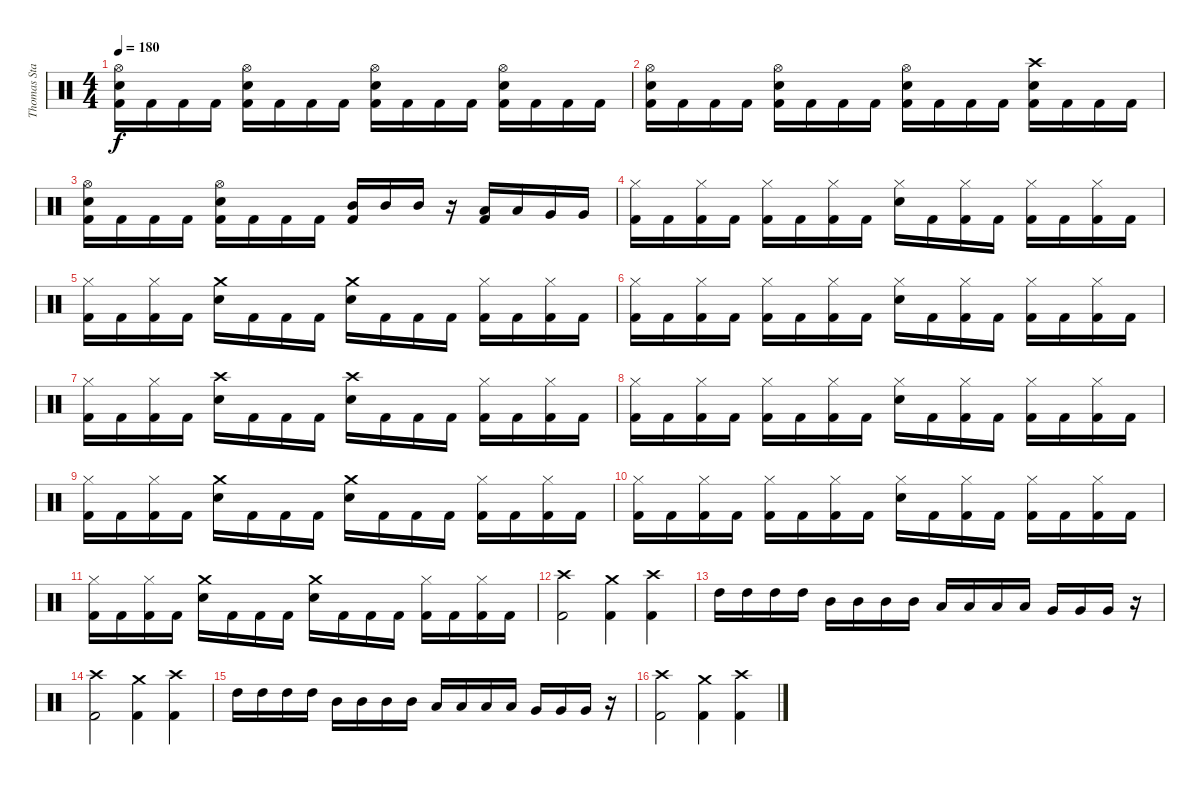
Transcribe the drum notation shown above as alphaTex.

\track ("Thomas Stauch" "Thomas Sta") {instrument percussion}
\staff {score}
\articulation defaults
\ts (4 4)
\tempo 180
\clef neutral
\ks c
("Hi-Hat (open)" "Electric Snare (hit)" "Kick (hit) 2").16{dy f} "Kick (hit) 2".16 "Kick (hit) 2".16 "Kick (hit) 2".16 ("Hi-Hat (open)" "Electric Snare (hit)" "Kick (hit) 2").16 "Kick (hit) 2".16 "Kick (hit) 2".16 "Kick (hit) 2".16 ("Hi-Hat (open)" "Electric Snare (hit)" "Kick (hit) 2").16 "Kick (hit) 2".16 "Kick (hit) 2".16 "Kick (hit) 2".16 ("Hi-Hat (open)" "Electric Snare (hit)" "Kick (hit) 2").16 "Kick (hit) 2".16 "Kick (hit) 2".16 "Kick (hit) 2".16 |
("Hi-Hat (open)" "Electric Snare (hit)" "Kick (hit) 2").16 "Kick (hit) 2".16 "Kick (hit) 2".16 "Kick (hit) 2".16 ("Hi-Hat (open)" "Electric Snare (hit)" "Kick (hit) 2").16 "Kick (hit) 2".16 "Kick (hit) 2".16 "Kick (hit) 2".16 ("Hi-Hat (open)" "Electric Snare (hit)" "Kick (hit) 2").16 "Kick (hit) 2".16 "Kick (hit) 2".16 "Kick (hit) 2".16 ("Crash high (hit)" "Electric Snare (hit)" "Kick (hit) 2").16 "Kick (hit) 2".16 "Kick (hit) 2".16 "Kick (hit) 2".16 |
("Hi-Hat (open)" "Electric Snare (hit)" "Kick (hit) 2").16 "Kick (hit) 2".16 "Kick (hit) 2".16 "Kick (hit) 2".16 ("Hi-Hat (open)" "Electric Snare (hit)" "Kick (hit) 2").16 "Kick (hit) 2".16 "Kick (hit) 2".16 "Kick (hit) 2".16 ("Mid Tom (hit)" "Kick (hit) 2").16 "Mid Tom (hit)".16 "Mid Tom (hit)".16 r.16 ("Low Tom (hit)" "Kick (hit) 2").16 "Low Tom (hit)".16 "Very Low Tom (hit)".16 "Very Low Tom (hit)".16 |
("Hi-Hat (closed)" "Kick (hit) 2").16 "Kick (hit) 2".16 ("Hi-Hat (closed)" "Kick (hit) 2").16 "Kick (hit) 2".16 ("Hi-Hat (closed)" "Kick (hit) 2").16 "Kick (hit) 2".16 ("Hi-Hat (closed)" "Kick (hit) 2").16 "Kick (hit) 2".16 ("Hi-Hat (closed)" "Electric Snare (hit)").16 "Kick (hit) 2".16 ("Hi-Hat (closed)" "Kick (hit) 2").16 "Kick (hit) 2".16 ("Hi-Hat (closed)" "Kick (hit) 2").16 "Kick (hit) 2".16 ("Hi-Hat (closed)" "Kick (hit) 2").16 "Kick (hit) 2".16 |
("Hi-Hat (closed)" "Kick (hit) 2").16 "Kick (hit) 2".16 ("Hi-Hat (closed)" "Kick (hit) 2").16 "Kick (hit) 2".16 ("Crash medium (hit)" "Electric Snare (hit)").16 "Kick (hit) 2".16 "Kick (hit) 2".16 "Kick (hit) 2".16 ("Crash medium (hit)" "Electric Snare (hit)").16 "Kick (hit) 2".16 "Kick (hit) 2".16 "Kick (hit) 2".16 ("Hi-Hat (closed)" "Kick (hit) 2").16 "Kick (hit) 2".16 ("Hi-Hat (closed)" "Kick (hit) 2").16 "Kick (hit) 2".16 |
("Hi-Hat (closed)" "Kick (hit) 2").16 "Kick (hit) 2".16 ("Hi-Hat (closed)" "Kick (hit) 2").16 "Kick (hit) 2".16 ("Hi-Hat (closed)" "Kick (hit) 2").16 "Kick (hit) 2".16 ("Hi-Hat (closed)" "Kick (hit) 2").16 "Kick (hit) 2".16 ("Hi-Hat (closed)" "Electric Snare (hit)").16 "Kick (hit) 2".16 ("Hi-Hat (closed)" "Kick (hit) 2").16 "Kick (hit) 2".16 ("Hi-Hat (closed)" "Kick (hit) 2").16 "Kick (hit) 2".16 ("Hi-Hat (closed)" "Kick (hit) 2").16 "Kick (hit) 2".16 |
("Hi-Hat (closed)" "Kick (hit) 2").16 "Kick (hit) 2".16 ("Hi-Hat (closed)" "Kick (hit) 2").16 "Kick (hit) 2".16 ("Crash high (hit)" "Electric Snare (hit)").16 "Kick (hit) 2".16 "Kick (hit) 2".16 "Kick (hit) 2".16 ("Crash high (hit)" "Electric Snare (hit)").16 "Kick (hit) 2".16 "Kick (hit) 2".16 "Kick (hit) 2".16 ("Hi-Hat (closed)" "Kick (hit) 2").16 "Kick (hit) 2".16 ("Hi-Hat (closed)" "Kick (hit) 2").16 "Kick (hit) 2".16 |
("Hi-Hat (closed)" "Kick (hit) 2").16 "Kick (hit) 2".16 ("Hi-Hat (closed)" "Kick (hit) 2").16 "Kick (hit) 2".16 ("Hi-Hat (closed)" "Kick (hit) 2").16 "Kick (hit) 2".16 ("Hi-Hat (closed)" "Kick (hit) 2").16 "Kick (hit) 2".16 ("Hi-Hat (closed)" "Electric Snare (hit)").16 "Kick (hit) 2".16 ("Hi-Hat (closed)" "Kick (hit) 2").16 "Kick (hit) 2".16 ("Hi-Hat (closed)" "Kick (hit) 2").16 "Kick (hit) 2".16 ("Hi-Hat (closed)" "Kick (hit) 2").16 "Kick (hit) 2".16 |
("Hi-Hat (closed)" "Kick (hit) 2").16 "Kick (hit) 2".16 ("Hi-Hat (closed)" "Kick (hit) 2").16 "Kick (hit) 2".16 ("Crash medium (hit)" "Electric Snare (hit)").16 "Kick (hit) 2".16 "Kick (hit) 2".16 "Kick (hit) 2".16 ("Crash medium (hit)" "Electric Snare (hit)").16 "Kick (hit) 2".16 "Kick (hit) 2".16 "Kick (hit) 2".16 ("Hi-Hat (closed)" "Kick (hit) 2").16 "Kick (hit) 2".16 ("Hi-Hat (closed)" "Kick (hit) 2").16 "Kick (hit) 2".16 |
("Hi-Hat (closed)" "Kick (hit) 2").16 "Kick (hit) 2".16 ("Hi-Hat (closed)" "Kick (hit) 2").16 "Kick (hit) 2".16 ("Hi-Hat (closed)" "Kick (hit) 2").16 "Kick (hit) 2".16 ("Hi-Hat (closed)" "Kick (hit) 2").16 "Kick (hit) 2".16 ("Hi-Hat (closed)" "Electric Snare (hit)").16 "Kick (hit) 2".16 ("Hi-Hat (closed)" "Kick (hit) 2").16 "Kick (hit) 2".16 ("Hi-Hat (closed)" "Kick (hit) 2").16 "Kick (hit) 2".16 ("Hi-Hat (closed)" "Kick (hit) 2").16 "Kick (hit) 2".16 |
("Hi-Hat (closed)" "Kick (hit) 2").16 "Kick (hit) 2".16 ("Hi-Hat (closed)" "Kick (hit) 2").16 "Kick (hit) 2".16 ("Crash medium (hit)" "Electric Snare (hit)").16 "Kick (hit) 2".16 "Kick (hit) 2".16 "Kick (hit) 2".16 ("Crash medium (hit)" "Electric Snare (hit)").16 "Kick (hit) 2".16 "Kick (hit) 2".16 "Kick (hit) 2".16 ("Hi-Hat (closed)" "Kick (hit) 2").16 "Kick (hit) 2".16 ("Hi-Hat (closed)" "Kick (hit) 2").16 "Kick (hit) 2".16 |
("Crash high (hit)" "Kick (hit) 2").2 ("Crash medium (hit)" "Kick (hit) 2").4 ("Crash high (hit)" "Kick (hit) 2").4 |
"High Tom (hit)".16 "High Tom (hit)".16 "High Tom (hit)".16 "High Tom (hit)".16 "Mid Tom (hit)".16 "Mid Tom (hit)".16 "Mid Tom (hit)".16 "Mid Tom (hit)".16 "Low Tom (hit)".16 "Low Tom (hit)".16 "Low Tom (hit)".16 "Low Tom (hit)".16 "Very Low Tom (hit)".16 "Very Low Tom (hit)".16 "Very Low Tom (hit)".16 r.16 |
("Crash high (hit)" "Kick (hit) 2").2 ("Crash medium (hit)" "Kick (hit) 2").4 ("Crash high (hit)" "Kick (hit) 2").4 |
"High Tom (hit)".16 "High Tom (hit)".16 "High Tom (hit)".16 "High Tom (hit)".16 "Mid Tom (hit)".16 "Mid Tom (hit)".16 "Mid Tom (hit)".16 "Mid Tom (hit)".16 "Low Tom (hit)".16 "Low Tom (hit)".16 "Low Tom (hit)".16 "Low Tom (hit)".16 "Very Low Tom (hit)".16 "Very Low Tom (hit)".16 "Very Low Tom (hit)".16 r.16 |
("Crash high (hit)" "Kick (hit) 2").2 ("Crash medium (hit)" "Kick (hit) 2").4 ("Crash high (hit)" "Kick (hit) 2").4
